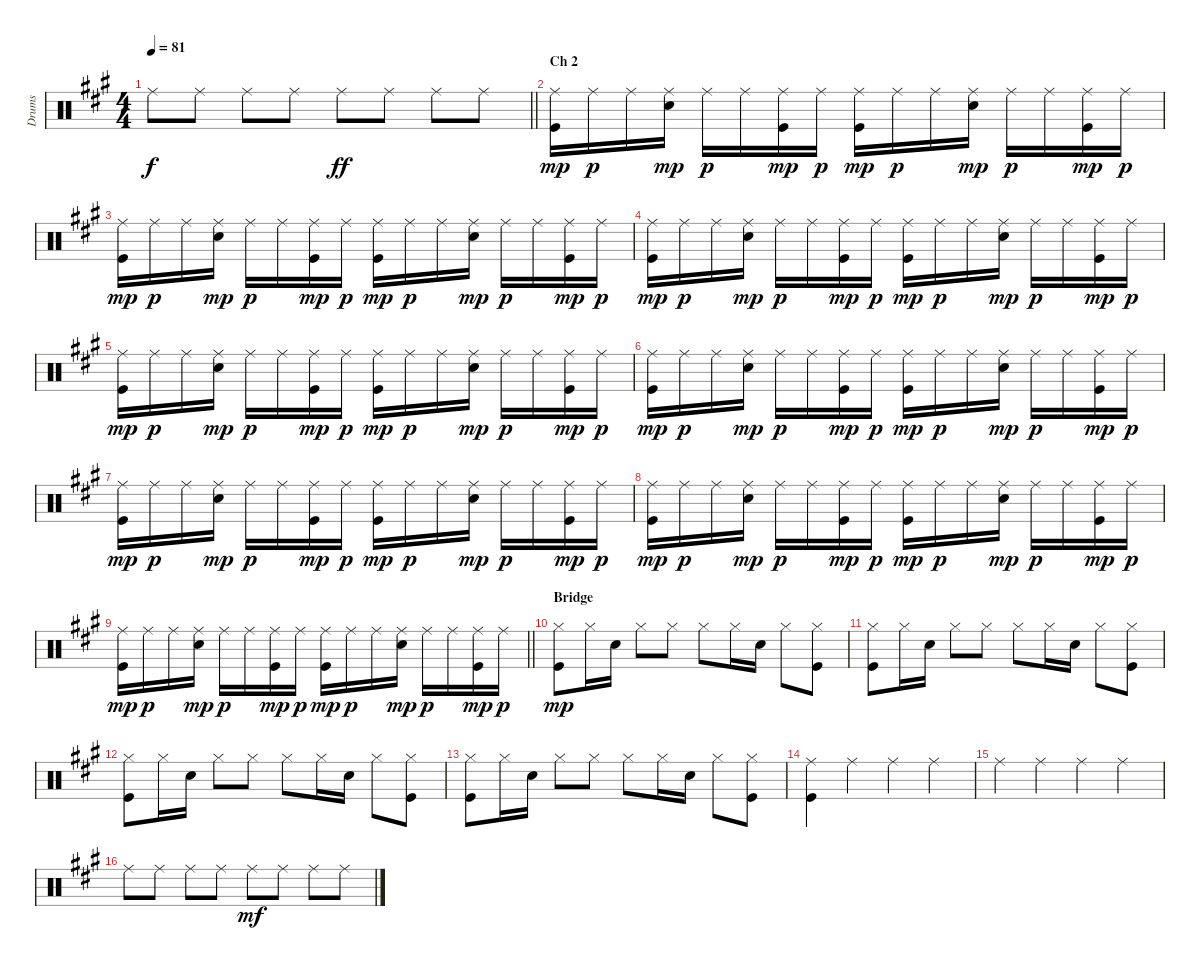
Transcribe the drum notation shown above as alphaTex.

\track ("Drums" "Drums") {instrument percussion}
\staff {score}
\articulation defaults
\ts (4 4)
\tempo 81
\clef neutral
\barLineRight lightlight
\ks f#minor "Ride (middle)".8{dy f} "Ride (middle)".8 "Ride (middle)".8 "Ride (middle)".8 "Ride (middle)".8{dy ff} "Ride (middle)".8 "Ride (middle)".8 "Ride (middle)".8
|
\section ("" "Ch 2")
("Ride (middle)" "Kick (hit)").16{dy mp} "Ride (middle)".16{dy p} "Ride (middle)".16 ("Ride (middle)" "Electric Snare (hit)").16{dy mp} "Ride (middle)".16{dy p} "Ride (middle)".16 ("Ride (middle)" "Kick (hit)").16{dy mp} "Ride (middle)".16{dy p} ("Ride (middle)" "Kick (hit)").16{dy mp} "Ride (middle)".16{dy p} "Ride (middle)".16 ("Ride (middle)" "Electric Snare (hit)").16{dy mp} "Ride (middle)".16{dy p} "Ride (middle)".16 ("Ride (middle)" "Kick (hit)").16{dy mp} "Ride (middle)".16{dy p} |
("Ride (middle)" "Kick (hit)").16{dy mp} "Ride (middle)".16{dy p} "Ride (middle)".16 ("Ride (middle)" "Electric Snare (hit)").16{dy mp} "Ride (middle)".16{dy p} "Ride (middle)".16 ("Ride (middle)" "Kick (hit)").16{dy mp} "Ride (middle)".16{dy p} ("Ride (middle)" "Kick (hit)").16{dy mp} "Ride (middle)".16{dy p} "Ride (middle)".16 ("Ride (middle)" "Electric Snare (hit)").16{dy mp} "Ride (middle)".16{dy p} "Ride (middle)".16 ("Ride (middle)" "Kick (hit)").16{dy mp} "Ride (middle)".16{dy p} |
("Ride (middle)" "Kick (hit)").16{dy mp} "Ride (middle)".16{dy p} "Ride (middle)".16 ("Ride (middle)" "Electric Snare (hit)").16{dy mp} "Ride (middle)".16{dy p} "Ride (middle)".16 ("Ride (middle)" "Kick (hit)").16{dy mp} "Ride (middle)".16{dy p} ("Ride (middle)" "Kick (hit)").16{dy mp} "Ride (middle)".16{dy p} "Ride (middle)".16 ("Ride (middle)" "Electric Snare (hit)").16{dy mp} "Ride (middle)".16{dy p} "Ride (middle)".16 ("Ride (middle)" "Kick (hit)").16{dy mp} "Ride (middle)".16{dy p} |
("Ride (middle)" "Kick (hit)").16{dy mp} "Ride (middle)".16{dy p} "Ride (middle)".16 ("Ride (middle)" "Electric Snare (hit)").16{dy mp} "Ride (middle)".16{dy p} "Ride (middle)".16 ("Ride (middle)" "Kick (hit)").16{dy mp} "Ride (middle)".16{dy p} ("Ride (middle)" "Kick (hit)").16{dy mp} "Ride (middle)".16{dy p} "Ride (middle)".16 ("Ride (middle)" "Electric Snare (hit)").16{dy mp} "Ride (middle)".16{dy p} "Ride (middle)".16 ("Ride (middle)" "Kick (hit)").16{dy mp} "Ride (middle)".16{dy p} |
("Ride (middle)" "Kick (hit)").16{dy mp} "Ride (middle)".16{dy p} "Ride (middle)".16 ("Ride (middle)" "Electric Snare (hit)").16{dy mp} "Ride (middle)".16{dy p} "Ride (middle)".16 ("Ride (middle)" "Kick (hit)").16{dy mp} "Ride (middle)".16{dy p} ("Ride (middle)" "Kick (hit)").16{dy mp} "Ride (middle)".16{dy p} "Ride (middle)".16 ("Ride (middle)" "Electric Snare (hit)").16{dy mp} "Ride (middle)".16{dy p} "Ride (middle)".16 ("Ride (middle)" "Kick (hit)").16{dy mp} "Ride (middle)".16{dy p} |
("Ride (middle)" "Kick (hit)").16{dy mp} "Ride (middle)".16{dy p} "Ride (middle)".16 ("Ride (middle)" "Electric Snare (hit)").16{dy mp} "Ride (middle)".16{dy p} "Ride (middle)".16 ("Ride (middle)" "Kick (hit)").16{dy mp} "Ride (middle)".16{dy p} ("Ride (middle)" "Kick (hit)").16{dy mp} "Ride (middle)".16{dy p} "Ride (middle)".16 ("Ride (middle)" "Electric Snare (hit)").16{dy mp} "Ride (middle)".16{dy p} "Ride (middle)".16 ("Ride (middle)" "Kick (hit)").16{dy mp} "Ride (middle)".16{dy p} |
("Ride (middle)" "Kick (hit)").16{dy mp} "Ride (middle)".16{dy p} "Ride (middle)".16 ("Ride (middle)" "Electric Snare (hit)").16{dy mp} "Ride (middle)".16{dy p} "Ride (middle)".16 ("Ride (middle)" "Kick (hit)").16{dy mp} "Ride (middle)".16{dy p} ("Ride (middle)" "Kick (hit)").16{dy mp} "Ride (middle)".16{dy p} "Ride (middle)".16 ("Ride (middle)" "Electric Snare (hit)").16{dy mp} "Ride (middle)".16{dy p} "Ride (middle)".16 ("Ride (middle)" "Kick (hit)").16{dy mp} "Ride (middle)".16{dy p} |
\barLineRight lightlight
("Ride (middle)" "Kick (hit)").16{dy mp} "Ride (middle)".16{dy p} "Ride (middle)".16 ("Ride (middle)" "Electric Snare (hit)").16{dy mp} "Ride (middle)".16{dy p} "Ride (middle)".16 ("Ride (middle)" "Kick (hit)").16{dy mp} "Ride (middle)".16{dy p} ("Ride (middle)" "Kick (hit)").16{dy mp} "Ride (middle)".16{dy p} "Ride (middle)".16 ("Ride (middle)" "Electric Snare (hit)").16{dy mp} "Ride (middle)".16{dy p} "Ride (middle)".16 ("Ride (middle)" "Kick (hit)").16{dy mp} "Ride (middle)".16{dy p} |
\section ("" "Bridge")
("Hi-Hat (closed)" "Kick (hit)").8{dy mp} "Hi-Hat (closed)".16 "Electric Snare (hit)".16 "Hi-Hat (closed)".8 "Hi-Hat (closed)".8 "Hi-Hat (closed)".8 "Hi-Hat (closed)".16 "Electric Snare (hit)".16 "Hi-Hat (closed)".8 ("Hi-Hat (closed)" "Kick (hit)").8 |
("Hi-Hat (closed)" "Kick (hit)").8 "Hi-Hat (closed)".16 "Electric Snare (hit)".16 "Hi-Hat (closed)".8 "Hi-Hat (closed)".8 "Hi-Hat (closed)".8 "Hi-Hat (closed)".16 "Electric Snare (hit)".16 "Hi-Hat (closed)".8 ("Hi-Hat (closed)" "Kick (hit)").8 |
("Hi-Hat (closed)" "Kick (hit)").8 "Hi-Hat (closed)".16 "Electric Snare (hit)".16 "Hi-Hat (closed)".8 "Hi-Hat (closed)".8 "Hi-Hat (closed)".8 "Hi-Hat (closed)".16 "Electric Snare (hit)".16 "Hi-Hat (closed)".8 ("Hi-Hat (closed)" "Kick (hit)").8 |
("Hi-Hat (closed)" "Kick (hit)").8 "Hi-Hat (closed)".16 "Electric Snare (hit)".16 "Hi-Hat (closed)".8 "Hi-Hat (closed)".8 "Hi-Hat (closed)".8 "Hi-Hat (closed)".16 "Electric Snare (hit)".16 "Hi-Hat (closed)".8 ("Hi-Hat (closed)" "Kick (hit)").8 |
("Ride (middle)" "Kick (hit)").4 "Ride (middle)".4 "Ride (middle)".4 "Ride (middle)".4 |
"Ride (middle)".4 "Ride (middle)".4 "Ride (middle)".4 "Ride (middle)".4 |
"Ride (middle)".8 "Ride (middle)".8 "Ride (middle)".8 "Ride (middle)".8 "Ride (middle)".8{dy mf} "Ride (middle)".8 "Ride (middle)".8 "Ride (middle)".8
